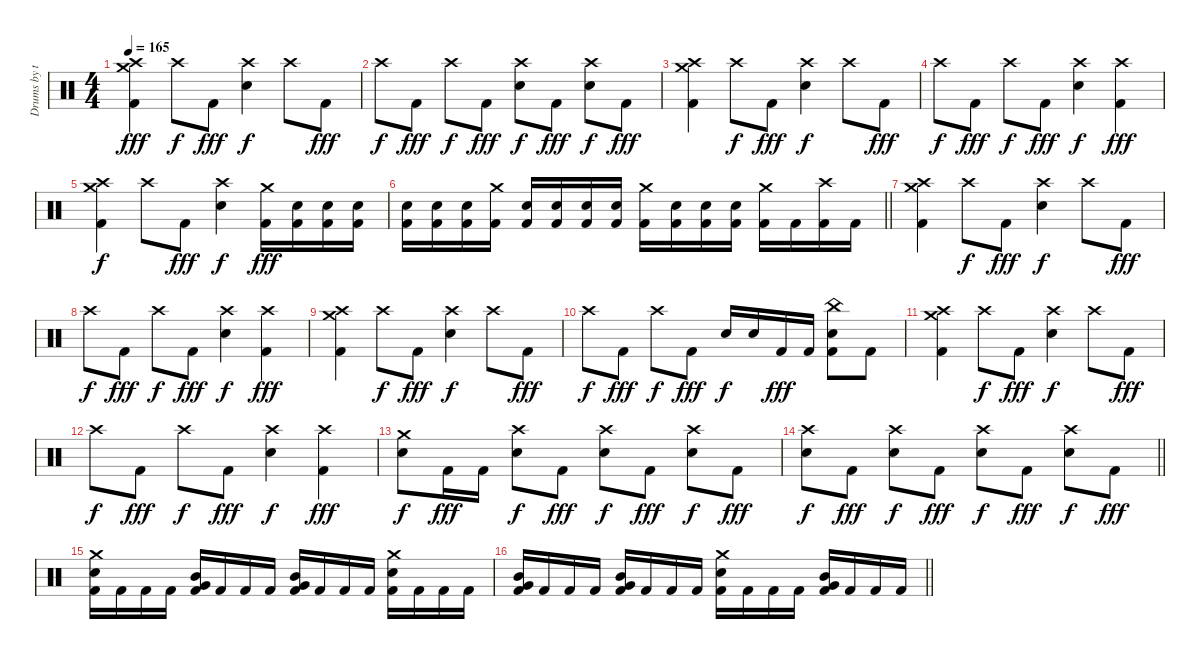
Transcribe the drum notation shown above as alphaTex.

\track ("Drums by terryn0" "Drums by t") {instrument percussion}
\staff {score}
\articulation defaults
\ts (4 4)
\tempo 165
\clef neutral
\ks c
("Crash medium (hit)" "Crash high (hit)" "Kick (hit) 2").4{dy fff} "Crash high (hit)".8{dy f} "Kick (hit) 2".8{dy fff} ("Crash high (hit)" "Electric Snare (hit)").4{dy f} "Crash high (hit)".8 "Kick (hit) 2".8{dy fff} |
"Crash high (hit)".8{dy f} "Kick (hit) 2".8{dy fff} "Crash high (hit)".8{dy f} "Kick (hit) 2".8{dy fff} ("Crash high (hit)" "Electric Snare (hit)").8{dy f} "Kick (hit) 2".8{dy fff} ("Crash high (hit)" "Electric Snare (hit)").8{dy f} "Kick (hit) 2".8{dy fff} |
("Crash medium (hit)" "Crash high (hit)" "Kick (hit) 2").4 "Crash high (hit)".8{dy f} "Kick (hit) 2".8{dy fff} ("Crash high (hit)" "Electric Snare (hit)").4{dy f} "Crash high (hit)".8 "Kick (hit) 2".8{dy fff} |
"Crash high (hit)".8{dy f} "Kick (hit) 2".8{dy fff} "Crash high (hit)".8{dy f} "Kick (hit) 2".8{dy fff} ("Crash high (hit)" "Electric Snare (hit)").4{dy f} ("Crash high (hit)" "Kick (hit) 2").4{dy fff} |
("Crash medium (hit)" "Crash high (hit)" "Kick (hit) 2").4{dy f} "Crash high (hit)".8 "Kick (hit) 2".8{dy fff} ("Crash high (hit)" "Electric Snare (hit)").4{dy f} ("Crash medium (hit)" "Kick (hit) 2").16{dy fff} ("Electric Snare (hit)" "Kick (hit) 2").16 ("Electric Snare (hit)" "Kick (hit) 2").16 ("Electric Snare (hit)" "Kick (hit) 2").16 |
\barLineRight lightlight
("Electric Snare (hit)" "Kick (hit) 2").16 ("Electric Snare (hit)" "Kick (hit) 2").16 ("Electric Snare (hit)" "Kick (hit) 2").16 ("Crash medium (hit)" "Kick (hit) 2").16 ("Electric Snare (hit)" "Kick (hit) 2").16 ("Electric Snare (hit)" "Kick (hit) 2").16 ("Electric Snare (hit)" "Kick (hit) 2").16 ("Electric Snare (hit)" "Kick (hit) 2").16 ("Crash medium (hit)" "Kick (hit) 2").16 ("Electric Snare (hit)" "Kick (hit) 2").16 ("Electric Snare (hit)" "Kick (hit) 2").16 ("Electric Snare (hit)" "Kick (hit) 2").16 ("Crash medium (hit)" "Kick (hit) 2").16 "Kick (hit) 2".16 ("Crash high (hit)" "Kick (hit) 2").16 "Kick (hit) 2".16 |
("Crash medium (hit)" "Crash high (hit)" "Kick (hit) 2").4 "Crash high (hit)".8{dy f} "Kick (hit) 2".8{dy fff} ("Crash high (hit)" "Electric Snare (hit)").4{dy f} "Crash high (hit)".8 "Kick (hit) 2".8{dy fff} |
"Crash high (hit)".8{dy f} "Kick (hit) 2".8{dy fff} "Crash high (hit)".8{dy f} "Kick (hit) 2".8{dy fff} ("Crash high (hit)" "Electric Snare (hit)").4{dy f} ("Crash high (hit)" "Kick (hit) 2").4{dy fff} |
("Crash medium (hit)" "Crash high (hit)" "Kick (hit) 2").4 "Crash high (hit)".8{dy f} "Kick (hit) 2".8{dy fff} ("Crash high (hit)" "Electric Snare (hit)").4{dy f} "Crash high (hit)".8 "Kick (hit) 2".8{dy fff} |
"Crash high (hit)".8{dy f} "Kick (hit) 2".8{dy fff} "Crash high (hit)".8{dy f} "Kick (hit) 2".8{dy fff} "Electric Snare (hit)".16{dy f} "Electric Snare (hit)".16 "Kick (hit) 2".16{dy fff} "Kick (hit) 2".16 ("China (hit)" "Electric Snare (hit)" "Kick (hit) 2").8 "Kick (hit) 2".8 |
("Crash medium (hit)" "Crash high (hit)" "Kick (hit) 2").4 "Crash high (hit)".8{dy f} "Kick (hit) 2".8{dy fff} ("Crash high (hit)" "Electric Snare (hit)").4{dy f} "Crash high (hit)".8 "Kick (hit) 2".8{dy fff} |
"Crash high (hit)".8{dy f} "Kick (hit) 2".8{dy fff} "Crash high (hit)".8{dy f} "Kick (hit) 2".8{dy fff} ("Crash high (hit)" "Electric Snare (hit)").4{dy f} ("Crash high (hit)" "Kick (hit) 2").4{dy fff} |
("Crash medium (hit)" "Electric Snare (hit)").8{dy f} "Kick (hit) 2".16{dy fff} "Kick (hit) 2".16 ("Crash high (hit)" "Electric Snare (hit)").8{dy f} "Kick (hit) 2".8{dy fff} ("Crash high (hit)" "Electric Snare (hit)").8{dy f} "Kick (hit) 2".8{dy fff} ("Crash high (hit)" "Electric Snare (hit)").8{dy f} "Kick (hit) 2".8{dy fff} |
\barLineRight lightlight
("Crash high (hit)" "Electric Snare (hit)").8{dy f} "Kick (hit) 2".8{dy fff} ("Crash high (hit)" "Electric Snare (hit)").8{dy f} "Kick (hit) 2".8{dy fff} ("Crash high (hit)" "Electric Snare (hit)").8{dy f} "Kick (hit) 2".8{dy fff} ("Crash high (hit)" "Electric Snare (hit)").8{dy f} "Kick (hit) 2".8{dy fff} |
("Crash medium (hit)" "Electric Snare (hit)" "Kick (hit) 2").16 "Kick (hit) 2".16 "Kick (hit) 2".16 "Kick (hit) 2".16 ("Mid Tom (hit)" "Very Low Tom (hit)" "Kick (hit) 2").16 "Kick (hit) 2".16 "Kick (hit) 2".16 "Kick (hit) 2".16 ("Mid Tom (hit)" "Very Low Tom (hit)" "Kick (hit) 2").16 "Kick (hit) 2".16 "Kick (hit) 2".16 "Kick (hit) 2".16 ("Crash medium (hit)" "Electric Snare (hit)" "Kick (hit) 2").16 "Kick (hit) 2".16 "Kick (hit) 2".16 "Kick (hit) 2".16 |
\barLineRight lightlight
("Mid Tom (hit)" "Very Low Tom (hit)" "Kick (hit) 2").16 "Kick (hit) 2".16 "Kick (hit) 2".16 "Kick (hit) 2".16 ("Mid Tom (hit)" "Very Low Tom (hit)" "Kick (hit) 2").16 "Kick (hit) 2".16 "Kick (hit) 2".16 "Kick (hit) 2".16 ("Crash medium (hit)" "Electric Snare (hit)" "Kick (hit) 2").16 "Kick (hit) 2".16 "Kick (hit) 2".16 "Kick (hit) 2".16 ("Mid Tom (hit)" "Very Low Tom (hit)" "Kick (hit) 2").16 "Kick (hit) 2".16 "Kick (hit) 2".16 "Kick (hit) 2".16
